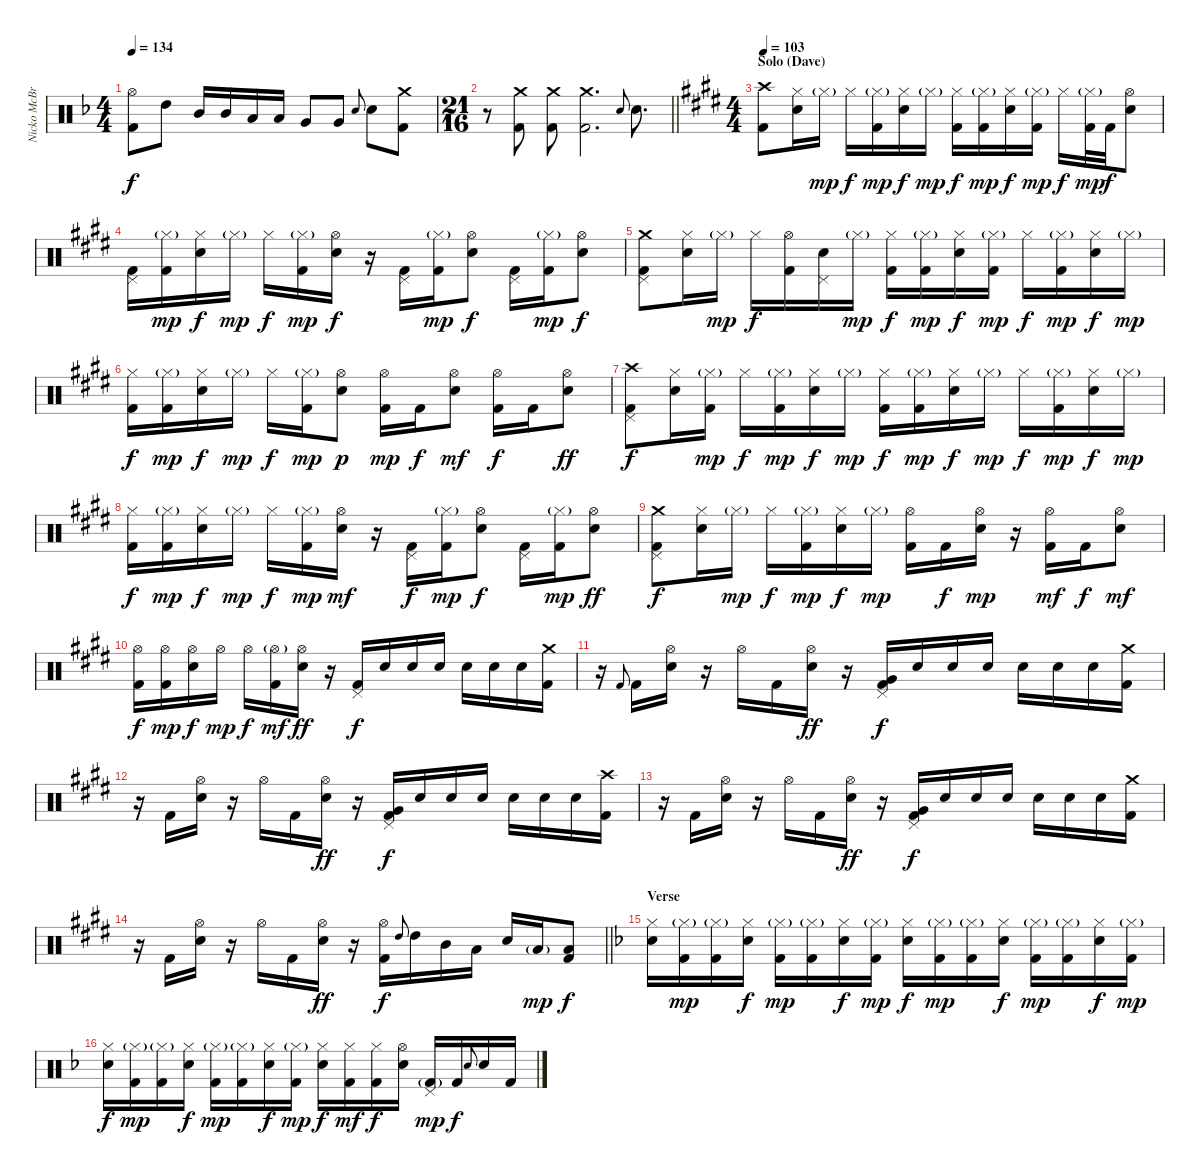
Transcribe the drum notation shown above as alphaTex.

\track ("Nicko McBrain" "Nicko McBr") {instrument percussion}
\staff {score}
\articulation defaults
\ts (4 4)
\tempo 134
\clef neutral
\ks dminor
("Hi-Hat (open)" "Kick (hit) 2").8{dy f} "High Tom (hit)".8 "Mid Tom (hit)".16 "Mid Tom (hit)".16 "Low Tom (hit)".16 "Low Tom (hit)".16 "Very Low Tom (hit)".8 "Very Low Tom (hit)".8 "Electric Snare (hit)".8{gr onbeat} "Electric Snare (hit)".8 ("Crash medium (hit)" "Kick (hit) 2").8 |
\ts (21 16)
\barLineRight lightlight
r.8 ("Crash medium (hit)" "Kick (hit) 2").8 ("Crash medium (hit)" "Kick (hit) 2").8 ("Crash medium (hit)" "Kick (hit) 2").2{d} "Electric Snare (hit)".8{gr onbeat} "Electric Snare (hit)".8{d} |
\ts (4 4)
\section ("" "Solo (Dave)")
\tempo 103
\ks e
("Crash high (hit)" "Kick (hit) 2").8 ("Hi-Hat (closed)" "Electric Snare (hit)").16 "Hi-Hat (closed)"{g}.16{dy mp} "Hi-Hat (closed)".16{dy f} ("Hi-Hat (closed)"{g} "Kick (hit) 2").16{dy mp} ("Hi-Hat (closed)" "Electric Snare (hit)").16{dy f} "Hi-Hat (closed)"{g}.16{dy mp} ("Hi-Hat (closed)" "Kick (hit) 2").16{dy f} ("Hi-Hat (closed)"{g} "Kick (hit) 2").16{dy mp} ("Hi-Hat (closed)" "Electric Snare (hit)").16{dy f} ("Hi-Hat (closed)"{g} "Kick (hit) 2").16{dy mp} "Hi-Hat (closed)".16{dy f} ("Hi-Hat (closed)"{g} "Kick (hit) 2").32{dy mp} "Kick (hit) 2".32{dy f} ("Hi-Hat (open)" "Electric Snare (hit)").8 |
("Pedal Hi-Hat (hit)" "Kick (hit) 2").16 ("Hi-Hat (closed)"{g} "Kick (hit) 2").16{dy mp} ("Hi-Hat (closed)" "Electric Snare (hit)").16{dy f} "Hi-Hat (closed)"{g}.16{dy mp} "Hi-Hat (closed)".16{dy f} ("Hi-Hat (closed)"{g} "Kick (hit) 2").16{dy mp} ("Hi-Hat (open)" "Electric Snare (hit)").16{dy f} r.16 ("Pedal Hi-Hat (hit)" "Kick (hit) 2").16 ("Hi-Hat (closed)"{g} "Kick (hit) 2").16{dy mp} ("Hi-Hat (open)" "Electric Snare (hit)").8{dy f} ("Pedal Hi-Hat (hit)" "Kick (hit) 2").16 ("Hi-Hat (closed)"{g} "Kick (hit) 2").16{dy mp} ("Hi-Hat (open)" "Electric Snare (hit)").8{dy f} |
("Crash medium (hit)" "Pedal Hi-Hat (hit)" "Kick (hit) 2").8 ("Hi-Hat (closed)" "Electric Snare (hit)").16 "Hi-Hat (closed)"{g}.16{dy mp} "Hi-Hat (closed)".16{dy f} ("Hi-Hat (open)" "Kick (hit) 2").16 ("Pedal Hi-Hat (hit)" "Electric Snare (hit)").16 "Hi-Hat (closed)"{g}.16{dy mp} ("Hi-Hat (closed)" "Kick (hit) 2").16{dy f} ("Hi-Hat (closed)"{g} "Kick (hit) 2").16{dy mp} ("Hi-Hat (closed)" "Electric Snare (hit)").16{dy f} ("Hi-Hat (closed)"{g} "Kick (hit) 2").16{dy mp} "Hi-Hat (closed)".16{dy f} ("Hi-Hat (closed)"{g} "Kick (hit) 2").16{dy mp} ("Hi-Hat (closed)" "Electric Snare (hit)").16{dy f} "Hi-Hat (closed)"{g}.16{dy mp} |
("Hi-Hat (closed)" "Kick (hit) 2").16{dy f} ("Hi-Hat (closed)"{g} "Kick (hit) 2").16{dy mp} ("Hi-Hat (closed)" "Electric Snare (hit)").16{dy f} "Hi-Hat (closed)"{g}.16{dy mp} "Hi-Hat (closed)".16{dy f} ("Hi-Hat (closed)"{g} "Kick (hit) 2").16{dy mp} ("Hi-Hat (open)" "Electric Snare (hit)").8{dy p} ("Hi-Hat (open)" "Kick (hit) 2").16{dy mp} "Kick (hit) 2".16{dy f} ("Hi-Hat (open)" "Electric Snare (hit)").8{dy mf} ("Hi-Hat (open)" "Kick (hit) 2").16{dy f} "Kick (hit) 2".16 ("Hi-Hat (open)" "Electric Snare (hit)").8{dy ff} |
("Crash high (hit)" "Pedal Hi-Hat (hit)" "Kick (hit) 2").8{dy f} ("Hi-Hat (closed)" "Electric Snare (hit)").16 ("Hi-Hat (closed)"{g} "Kick (hit) 2").16{dy mp} "Hi-Hat (closed)".16{dy f} ("Hi-Hat (closed)"{g} "Kick (hit) 2").16{dy mp} ("Hi-Hat (closed)" "Electric Snare (hit)").16{dy f} "Hi-Hat (closed)"{g}.16{dy mp} ("Hi-Hat (closed)" "Kick (hit) 2").16{dy f} ("Hi-Hat (closed)"{g} "Kick (hit) 2").16{dy mp} ("Hi-Hat (closed)" "Electric Snare (hit)").16{dy f} "Hi-Hat (closed)"{g}.16{dy mp} "Hi-Hat (closed)".16{dy f} ("Hi-Hat (closed)"{g} "Kick (hit) 2").16{dy mp} ("Hi-Hat (closed)" "Electric Snare (hit)").16{dy f} "Hi-Hat (closed)"{g}.16{dy mp} |
("Hi-Hat (closed)" "Kick (hit) 2").16{dy f} ("Hi-Hat (closed)"{g} "Kick (hit) 2").16{dy mp} ("Hi-Hat (closed)" "Electric Snare (hit)").16{dy f} "Hi-Hat (closed)"{g}.16{dy mp} "Hi-Hat (closed)".16{dy f} ("Hi-Hat (closed)"{g} "Kick (hit) 2").16{dy mp} ("Hi-Hat (open)" "Electric Snare (hit)").16{dy mf} r.16 ("Pedal Hi-Hat (hit)" "Kick (hit) 2").16{dy f} ("Hi-Hat (closed)"{g} "Kick (hit) 2").16{dy mp} ("Hi-Hat (open)" "Electric Snare (hit)").8{dy f} ("Pedal Hi-Hat (hit)" "Kick (hit) 2").16 ("Hi-Hat (closed)"{g} "Kick (hit) 2").16{dy mp} ("Hi-Hat (open)" "Electric Snare (hit)").8{dy ff} |
("Crash medium (hit)" "Pedal Hi-Hat (hit)" "Kick (hit) 2").8{dy f} ("Hi-Hat (closed)" "Electric Snare (hit)").16 "Hi-Hat (closed)"{g}.16{dy mp} "Hi-Hat (closed)".16{dy f} ("Hi-Hat (closed)"{g} "Kick (hit) 2").16{dy mp} ("Hi-Hat (closed)" "Electric Snare (hit)").16{dy f} "Hi-Hat (closed)"{g}.16{dy mp} ("Hi-Hat (open)" "Kick (hit) 2").16 "Kick (hit) 2".16{dy f} ("Hi-Hat (open)" "Electric Snare (hit)").16{dy mp} r.16 ("Hi-Hat (open)" "Kick (hit) 2").16{dy mf} "Kick (hit) 2".16{dy f} ("Hi-Hat (open)" "Electric Snare (hit)").8{dy mf} |
("Hi-Hat (open)" "Kick (hit) 2").16{dy f} ("Hi-Hat (open)" "Kick (hit) 2").16{dy mp} ("Hi-Hat (open)" "Electric Snare (hit)").16{dy f} "Hi-Hat (open)".16{dy mp} "Hi-Hat (open)".16{dy f} ("Hi-Hat (open)"{g} "Kick (hit) 2").16{dy mf} ("Hi-Hat (open)" "Electric Snare (hit)").16{dy ff} r.16 ("Pedal Hi-Hat (hit)" "Kick (hit) 2").16{dy f} "Electric Snare (hit)".16 "Electric Snare (hit)".16 "Electric Snare (hit)".16 "Electric Snare (hit)".16 "Electric Snare (hit)".16 "Electric Snare (hit)".16 ("Crash medium (hit)" "Kick (hit) 2").16 |
r.16 "Kick (hit) 2".8{gr onbeat} "Kick (hit) 2".16 ("Hi-Hat (open)" "Electric Snare (hit)").16 r.16 "Hi-Hat (open)".16 "Kick (hit) 2".16 ("Hi-Hat (open)" "Electric Snare (hit)").16{dy ff} r.16 ("Pedal Hi-Hat (hit)" "Very Low Tom (hit)" "Kick (hit) 2").16{dy f} "Electric Snare (hit)".16 "Electric Snare (hit)".16 "Electric Snare (hit)".16 "Electric Snare (hit)".16 "Electric Snare (hit)".16 "Electric Snare (hit)".16 ("Crash medium (hit)" "Kick (hit) 2").16 |
r.16 "Kick (hit) 2".16 ("Hi-Hat (open)" "Electric Snare (hit)").16 r.16 "Hi-Hat (open)".16 "Kick (hit) 2".16 ("Hi-Hat (open)" "Electric Snare (hit)").16{dy ff} r.16 ("Pedal Hi-Hat (hit)" "Very Low Tom (hit)" "Kick (hit) 2").16{dy f} "Electric Snare (hit)".16 "Electric Snare (hit)".16 "Electric Snare (hit)".16 "Electric Snare (hit)".16 "Electric Snare (hit)".16 "Electric Snare (hit)".16 ("Crash high (hit)" "Kick (hit) 2").16 |
r.16 "Kick (hit) 2".16 ("Hi-Hat (open)" "Electric Snare (hit)").16 r.16 "Hi-Hat (open)".16 "Kick (hit) 2".16 ("Hi-Hat (open)" "Electric Snare (hit)").16{dy ff} r.16 ("Pedal Hi-Hat (hit)" "Very Low Tom (hit)" "Kick (hit) 2").16{dy f} "Electric Snare (hit)".16 "Electric Snare (hit)".16 "Electric Snare (hit)".16 "Electric Snare (hit)".16 "Electric Snare (hit)".16 "Electric Snare (hit)".16 ("Crash medium (hit)" "Kick (hit) 2").16 |
\barLineRight lightlight
r.16 "Kick (hit) 2".16 ("Hi-Hat (open)" "Electric Snare (hit)").16 r.16 "Hi-Hat (open)".16 "Kick (hit) 2".16 ("Hi-Hat (open)" "Electric Snare (hit)").16{dy ff} r.16 ("Hi-Hat (open)" "Kick (hit) 2").16{dy f} "High Tom (hit)".8{gr onbeat} "High Tom (hit)".16 "Mid Tom (hit)".16 "Low Tom (hit)".16 "Electric Snare (hit)".16 "Low Floor Tom (hit)"{g}.16{dy mp} ("Low Floor Tom (hit)" "Kick (hit) 2").8{dy f} |
\section ("" "Verse")
\ks dminor
("Hi-Hat (closed)" "Electric Snare (hit)").16 ("Hi-Hat (closed)"{g} "Kick (hit) 2").16{dy mp} ("Hi-Hat (closed)"{g} "Kick (hit) 2").16 ("Hi-Hat (closed)" "Electric Snare (hit)").16{dy f} ("Hi-Hat (closed)"{g} "Kick (hit) 2").16{dy mp} ("Hi-Hat (closed)"{g} "Kick (hit) 2").16 ("Hi-Hat (closed)" "Electric Snare (hit)").16{dy f} ("Hi-Hat (closed)"{g} "Kick (hit) 2").16{dy mp} ("Hi-Hat (closed)" "Electric Snare (hit)").16{dy f} ("Hi-Hat (closed)"{g} "Kick (hit) 2").16{dy mp} ("Hi-Hat (closed)"{g} "Kick (hit) 2").16 ("Hi-Hat (closed)" "Electric Snare (hit)").16{dy f} ("Hi-Hat (closed)"{g} "Kick (hit) 2").16{dy mp} ("Hi-Hat (closed)"{g} "Kick (hit) 2").16 ("Hi-Hat (closed)" "Electric Snare (hit)").16{dy f} ("Hi-Hat (closed)"{g} "Kick (hit) 2").16{dy mp} |
("Hi-Hat (closed)" "Electric Snare (hit)").16{dy f} ("Hi-Hat (closed)"{g} "Kick (hit) 2").16{dy mp} ("Hi-Hat (closed)"{g} "Kick (hit) 2").16 ("Hi-Hat (closed)" "Electric Snare (hit)").16{dy f} ("Hi-Hat (closed)"{g} "Kick (hit) 2").16{dy mp} ("Hi-Hat (closed)"{g} "Kick (hit) 2").16 ("Hi-Hat (closed)" "Electric Snare (hit)").16{dy f} ("Hi-Hat (closed)"{g} "Kick (hit) 2").16{dy mp} ("Hi-Hat (closed)" "Electric Snare (hit)").16{dy f} ("Hi-Hat (closed)" "Kick (hit) 2").16{dy mf} ("Hi-Hat (closed)" "Kick (hit) 2").16{dy f} ("Hi-Hat (open)" "Electric Snare (hit)").16 ("Pedal Hi-Hat (hit)" "Kick (hit) 2"{g}).16{dy mp} "Kick (hit) 2".16{dy f} "Electric Snare (hit)".8{gr onbeat} "Electric Snare (hit)".16 "Kick (hit) 2".16
